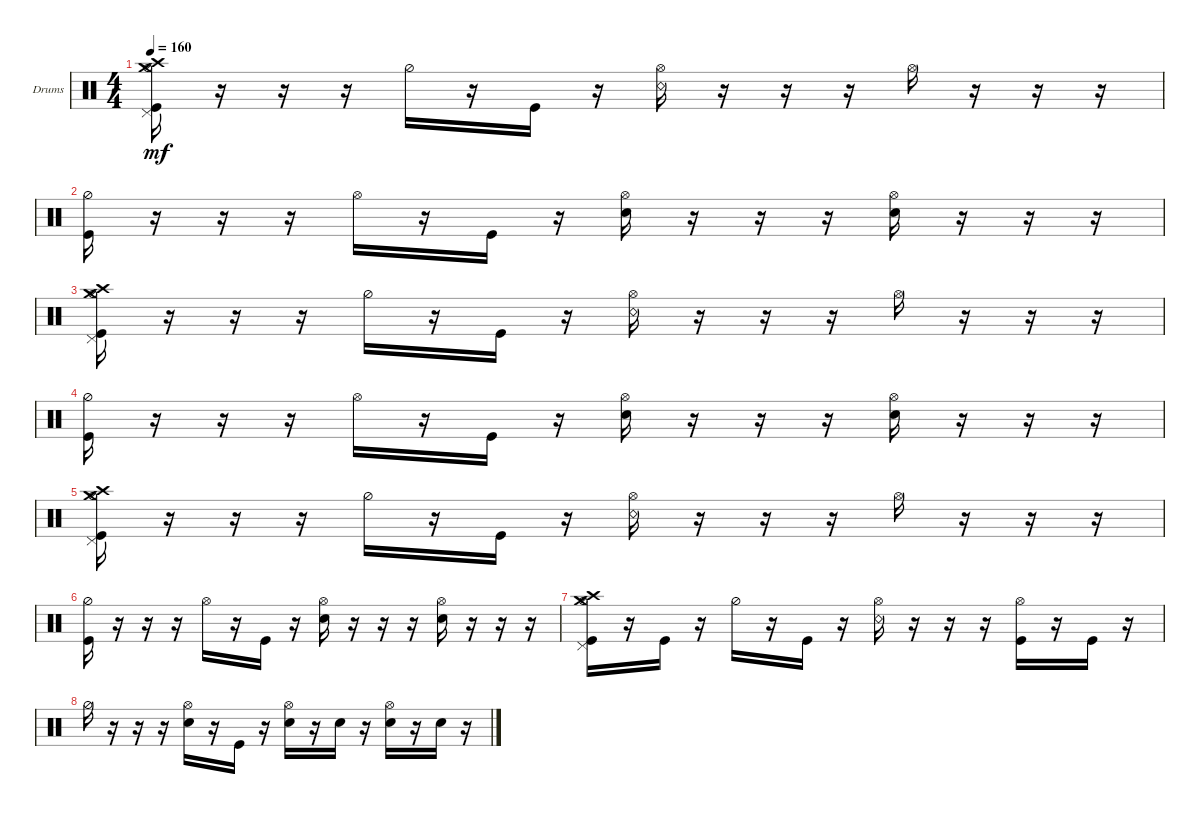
\defaultSystemsLayout 4
\bracketExtendMode groupsimilarinstruments
\firstSystemTrackNameOrientation horizontal
\otherSystemsTrackNameOrientation horizontal
\track ("Drumkit" "Drums") {solo instrument percussion}
\staff {score}
\articulation defaults
\ts (4 4)
\tempo 160
\clef neutral
\ks c
("Pedal Hi-Hat (hit)" "Crash medium (hit)" "Kick (hit)" "Hi-Hat (half)" "Crash high (hit)").16{dy mf} r.16 r.16 r.16 "Hi-Hat (half)".16 r.16 "Kick (hit)".16 r.16 ("Hi-Hat (open)" "Snare (rim shot)").16 r.16 r.16 r.16 "Hi-Hat (open)".16 r.16 r.16 r.16 |
("Kick (hit)" "Hi-Hat (half)").16 r.16 r.16 r.16 "Hi-Hat (open)".16 r.16 "Kick (hit)".16 r.16 ("Hi-Hat (open)" "Snare (hit) 2").16 r.16 r.16 r.16 ("Hi-Hat (open)" "Snare (hit) 2").16 r.16 r.16 r.16 |
("Pedal Hi-Hat (hit)" "Crash medium (hit)" "Kick (hit)" "Hi-Hat (half)" "Crash high (hit)").16 r.16 r.16 r.16 "Hi-Hat (half)".16 r.16 "Kick (hit)".16 r.16 ("Hi-Hat (open)" "Snare (rim shot)").16 r.16 r.16 r.16 "Hi-Hat (open)".16 r.16 r.16 r.16 |
("Kick (hit)" "Hi-Hat (half)").16 r.16 r.16 r.16 "Hi-Hat (open)".16 r.16 "Kick (hit)".16 r.16 ("Hi-Hat (open)" "Snare (hit) 2").16 r.16 r.16 r.16 ("Hi-Hat (open)" "Snare (hit) 2").16 r.16 r.16 r.16 |
("Pedal Hi-Hat (hit)" "Crash medium (hit)" "Kick (hit)" "Hi-Hat (half)" "Crash high (hit)").16 r.16 r.16 r.16 "Hi-Hat (half)".16 r.16 "Kick (hit)".16 r.16 ("Hi-Hat (open)" "Snare (rim shot)").16 r.16 r.16 r.16 "Hi-Hat (open)".16 r.16 r.16 r.16 |
("Kick (hit)" "Hi-Hat (half)").16 r.16 r.16 r.16 "Hi-Hat (open)".16 r.16 "Kick (hit)".16 r.16 ("Hi-Hat (open)" "Snare (hit) 2").16 r.16 r.16 r.16 ("Hi-Hat (open)" "Snare (hit) 2").16 r.16 r.16 r.16 |
("Pedal Hi-Hat (hit)" "Crash medium (hit)" "Kick (hit)" "Hi-Hat (half)" "Crash high (hit)").16 r.16 "Kick (hit)".16 r.16 "Hi-Hat (half)".16 r.16 "Kick (hit)".16 r.16 ("Hi-Hat (open)" "Snare (rim shot)").16 r.16 r.16 r.16 ("Hi-Hat (open)" "Kick (hit)").16 r.16 "Kick (hit)".16 r.16 |
"Hi-Hat (half)".16 r.16 r.16 r.16 ("Snare (hit) 2" "Hi-Hat (open)").16 r.16 "Kick (hit)".16 r.16 ("Hi-Hat (open)" "Snare (hit) 2").16 r.16 "Snare (hit) 2".16 r.16 ("Hi-Hat (open)" "Snare (hit) 2").16 r.16 "Snare (hit) 2".16 r.16
